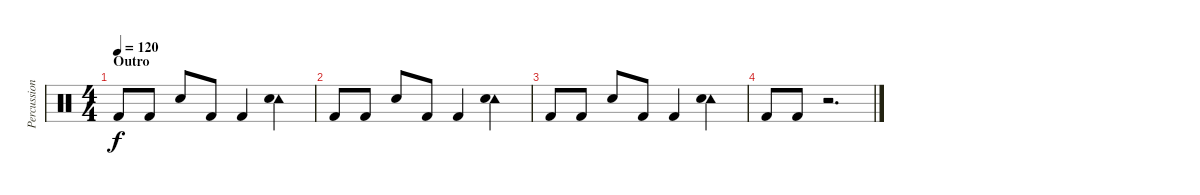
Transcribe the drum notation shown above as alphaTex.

\track ("Percussion" "Percussion") {instrument percussion}
\staff {score}
\articulation defaults
\ts (4 4)
\section ("" "Outro")
\tempo 120
\clef neutral
\ks c "Kick (hit) 2".8{dy f} "Kick (hit) 2".8 "Snare (hit) 2".8 "Kick (hit) 2".8 "Kick (hit) 2".4
("Tambourine (hit)" "Snare (hit) 2").4 |
"Kick (hit) 2".8 "Kick (hit) 2".8 "Snare (hit) 2".8 "Kick (hit) 2".8 "Kick (hit) 2".4 ("Tambourine (hit)" "Snare (hit) 2").4 |
"Kick (hit) 2".8 "Kick (hit) 2".8 "Snare (hit) 2".8 "Kick (hit) 2".8 "Kick (hit) 2".4 ("Tambourine (hit)" "Snare (hit) 2").4 |
"Kick (hit) 2".8 "Kick (hit) 2".8 r.2{d}
